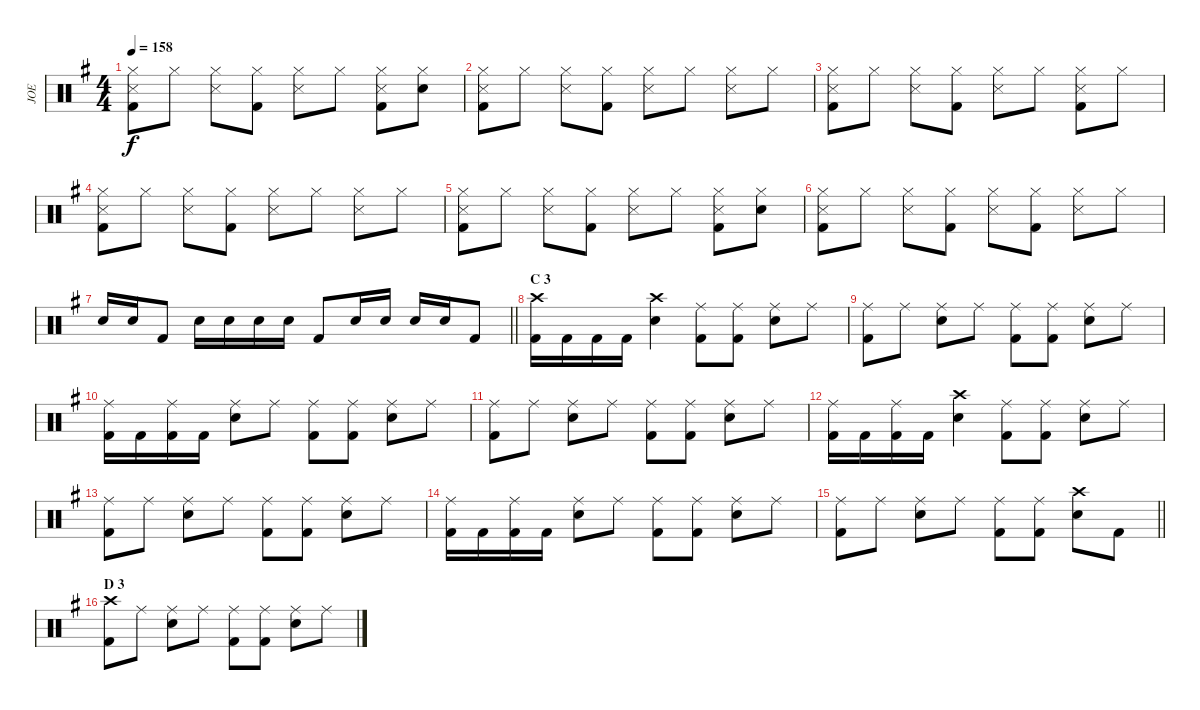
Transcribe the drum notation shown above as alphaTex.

\track ("JOE" "JOE") {instrument percussion}
\staff {score}
\articulation defaults
\ts (4 4)
\tempo 158
\clef neutral
\ks g
("Hi-Hat (closed)" "Kick (hit) 2" "Snare (side stick) 3").8{dy f} "Hi-Hat (closed)".8 ("Hi-Hat (closed)" "Snare (side stick) 3").8 ("Hi-Hat (closed)" "Kick (hit) 2").8 ("Hi-Hat (closed)" "Snare (side stick) 3").8 "Hi-Hat (closed)".8 ("Hi-Hat (closed)" "Snare (side stick) 3" "Kick (hit) 2").8 ("Hi-Hat (closed)" "Snare (hit) 2").8 |
("Hi-Hat (closed)" "Kick (hit) 2" "Snare (side stick) 3").8 "Hi-Hat (closed)".8 ("Hi-Hat (closed)" "Snare (side stick) 3").8 ("Hi-Hat (closed)" "Kick (hit) 2").8 ("Hi-Hat (closed)" "Snare (side stick) 3").8 "Hi-Hat (closed)".8 ("Hi-Hat (closed)" "Snare (side stick) 3").8 "Hi-Hat (closed)".8 |
("Hi-Hat (closed)" "Kick (hit) 2" "Snare (side stick) 3").8 "Hi-Hat (closed)".8 ("Hi-Hat (closed)" "Snare (side stick) 3").8 ("Hi-Hat (closed)" "Kick (hit) 2").8 ("Hi-Hat (closed)" "Snare (side stick) 3").8 "Hi-Hat (closed)".8 ("Hi-Hat (closed)" "Snare (side stick) 3" "Kick (hit) 2").8 "Hi-Hat (closed)".8 |
("Hi-Hat (closed)" "Kick (hit) 2" "Snare (side stick) 3").8 "Hi-Hat (closed)".8 ("Hi-Hat (closed)" "Snare (side stick) 3").8 ("Hi-Hat (closed)" "Kick (hit) 2").8 ("Hi-Hat (closed)" "Snare (side stick) 3").8 "Hi-Hat (closed)".8 ("Hi-Hat (closed)" "Snare (side stick) 3").8 "Hi-Hat (closed)".8 |
("Hi-Hat (closed)" "Kick (hit) 2" "Snare (side stick) 3").8 "Hi-Hat (closed)".8 ("Hi-Hat (closed)" "Snare (side stick) 3").8 ("Hi-Hat (closed)" "Kick (hit) 2").8 ("Hi-Hat (closed)" "Snare (side stick) 3").8 "Hi-Hat (closed)".8 ("Hi-Hat (closed)" "Snare (side stick) 3" "Kick (hit) 2").8 ("Hi-Hat (closed)" "Snare (hit) 2").8 |
("Hi-Hat (closed)" "Kick (hit) 2" "Snare (side stick) 3").8 "Hi-Hat (closed)".8 ("Hi-Hat (closed)" "Snare (side stick) 3").8 ("Hi-Hat (closed)" "Kick (hit) 2").8 ("Hi-Hat (closed)" "Snare (side stick) 3").8 ("Hi-Hat (closed)" "Kick (hit) 2").8 ("Hi-Hat (closed)" "Snare (side stick) 3").8 "Hi-Hat (closed)".8 |
\barLineRight lightlight "Snare (hit) 2".16 "Snare (hit) 2".16 "Kick (hit) 2".8 "Snare (hit) 2".16 "Snare (hit) 2".16 "Snare (hit) 2".16 "Snare (hit) 2".16 "Kick (hit) 2".8 "Snare (hit) 2".16 "Snare (hit) 2".16 "Snare (hit) 2".16 "Snare (hit) 2".16 "Kick (hit) 2".8
|
\section ("" "C 3")
("Crash high (hit)" "Kick (hit) 2").16 "Kick (hit) 2".16 "Kick (hit) 2".16 "Kick (hit) 2".16 ("Crash high (hit)" "Snare (hit) 2").4 ("Ride (middle)" "Kick (hit) 2").8 ("Ride (middle)" "Kick (hit) 2").8 ("Ride (middle)" "Snare (hit) 2").8 "Ride (middle)".8 |
("Ride (middle)" "Kick (hit) 2").8 "Ride (middle)".8 ("Ride (middle)" "Snare (hit) 2").8 "Ride (middle)".8 ("Ride (middle)" "Kick (hit) 2").8 ("Ride (middle)" "Kick (hit) 2").8 ("Ride (middle)" "Snare (hit) 2").8 "Ride (middle)".8 |
("Ride (middle)" "Kick (hit) 2").16 "Kick (hit) 2".16 ("Ride (middle)" "Kick (hit) 2").16 "Kick (hit) 2".16 ("Ride (middle)" "Snare (hit) 2").8 "Ride (middle)".8 ("Ride (middle)" "Kick (hit) 2").8 ("Ride (middle)" "Kick (hit) 2").8 ("Ride (middle)" "Snare (hit) 2").8 "Ride (middle)".8 |
("Ride (middle)" "Kick (hit) 2").8 "Ride (middle)".8 ("Ride (middle)" "Snare (hit) 2").8 "Ride (middle)".8 ("Ride (middle)" "Kick (hit) 2").8 ("Ride (middle)" "Kick (hit) 2").8 ("Ride (middle)" "Snare (hit) 2").8 "Ride (middle)".8 |
("Ride (middle)" "Kick (hit) 2").16 "Kick (hit) 2".16 ("Ride (middle)" "Kick (hit) 2").16 "Kick (hit) 2".16 ("Crash high (hit)" "Snare (hit) 2").4 ("Ride (middle)" "Kick (hit) 2").8 ("Ride (middle)" "Kick (hit) 2").8 ("Ride (middle)" "Snare (hit) 2").8 "Ride (middle)".8 |
("Ride (middle)" "Kick (hit) 2").8 "Ride (middle)".8 ("Ride (middle)" "Snare (hit) 2").8 "Ride (middle)".8 ("Ride (middle)" "Kick (hit) 2").8 ("Ride (middle)" "Kick (hit) 2").8 ("Ride (middle)" "Snare (hit) 2").8 "Ride (middle)".8 |
("Ride (middle)" "Kick (hit) 2").16 "Kick (hit) 2".16 ("Ride (middle)" "Kick (hit) 2").16 "Kick (hit) 2".16 ("Ride (middle)" "Snare (hit) 2").8 "Ride (middle)".8 ("Ride (middle)" "Kick (hit) 2").8 ("Ride (middle)" "Kick (hit) 2").8 ("Ride (middle)" "Snare (hit) 2").8 "Ride (middle)".8 |
\barLineRight lightlight
("Ride (middle)" "Kick (hit) 2").8 "Ride (middle)".8 ("Ride (middle)" "Snare (hit) 2").8 "Ride (middle)".8 ("Ride (middle)" "Kick (hit) 2").8 ("Ride (middle)" "Kick (hit) 2").8 ("Crash high (hit)" "Snare (hit) 2").8 "Kick (hit) 2".8 |
\section ("" "D 3")
("Crash high (hit)" "Kick (hit) 2").8 "Ride (middle)".8 ("Ride (middle)" "Snare (hit) 2").8 "Ride (middle)".8 ("Ride (middle)" "Kick (hit) 2").8 ("Ride (middle)" "Kick (hit) 2").8 ("Ride (middle)" "Snare (hit) 2").8 "Ride (middle)".8
